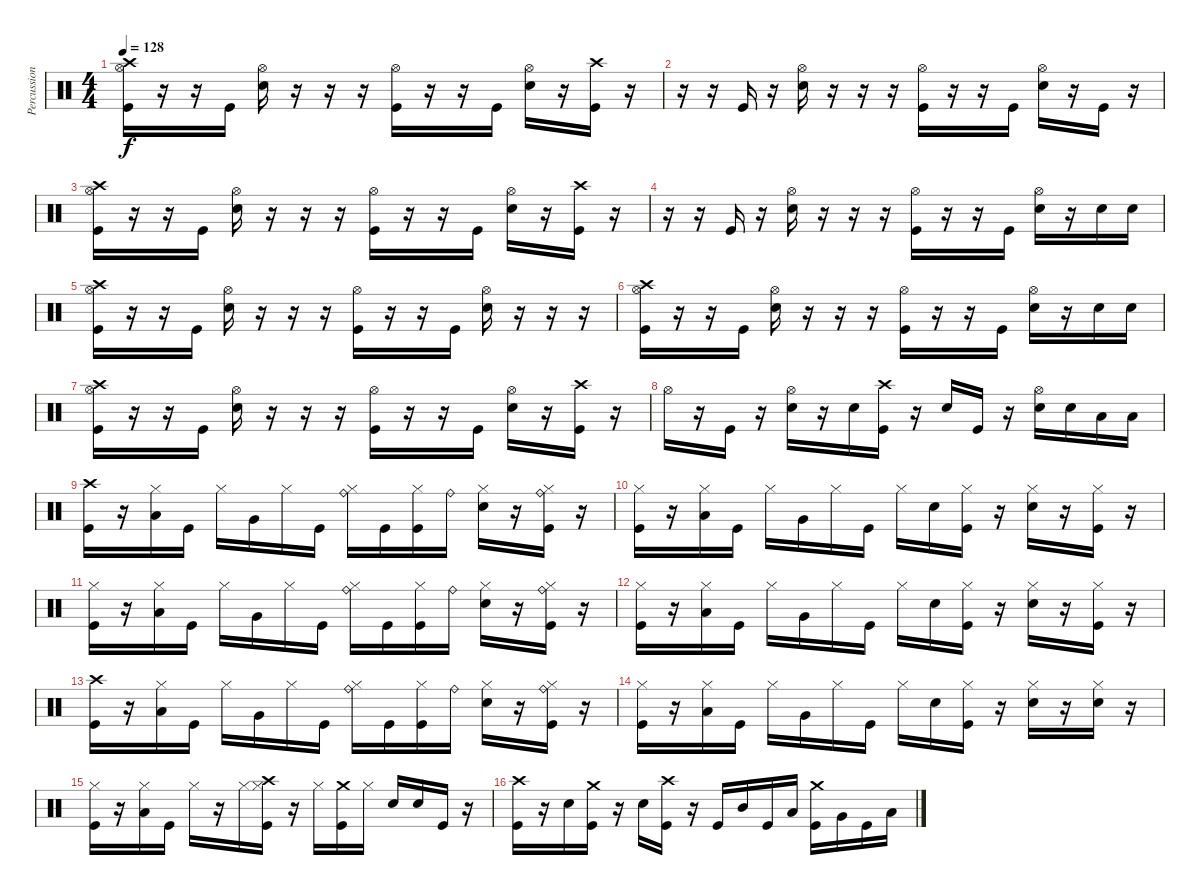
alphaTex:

\track ("Percussion" "Percussion") {instrument percussion}
\staff {score}
\articulation defaults
\ts (4 4)
\tempo 128
\clef neutral
\ks c
("Crash high (hit)" "Hi-Hat (open)" "Kick (hit)").16{dy f} r.16 r.16 "Kick (hit)".16 ("Hi-Hat (open)" "Electric Snare (hit)").16 r.16 r.16 r.16 ("Hi-Hat (open)" "Kick (hit)").16 r.16 r.16 "Kick (hit)".16 ("Hi-Hat (open)" "Electric Snare (hit)").16 r.16 ("Crash high (hit)" "Kick (hit)").16 r.16 |
r.16 r.16 "Kick (hit)".16 r.16 ("Hi-Hat (open)" "Electric Snare (hit)").16 r.16 r.16 r.16 ("Hi-Hat (open)" "Kick (hit)").16 r.16 r.16 "Kick (hit)".16 ("Hi-Hat (open)" "Electric Snare (hit)").16 r.16 "Kick (hit)".16 r.16 |
("Crash high (hit)" "Hi-Hat (open)" "Kick (hit)").16 r.16 r.16 "Kick (hit)".16 ("Hi-Hat (open)" "Electric Snare (hit)").16 r.16 r.16 r.16 ("Hi-Hat (open)" "Kick (hit)").16 r.16 r.16 "Kick (hit)".16 ("Hi-Hat (open)" "Electric Snare (hit)").16 r.16 ("Crash high (hit)" "Kick (hit)").16 r.16 |
r.16 r.16 "Kick (hit)".16 r.16 ("Hi-Hat (open)" "Electric Snare (hit)").16 r.16 r.16 r.16 ("Hi-Hat (open)" "Kick (hit)").16 r.16 r.16 "Kick (hit)".16 ("Hi-Hat (open)" "Electric Snare (hit)").16 r.16 "Electric Snare (hit)".16 "Electric Snare (hit)".16 |
("Crash high (hit)" "Hi-Hat (open)" "Kick (hit)").16 r.16 r.16 "Kick (hit)".16 ("Hi-Hat (open)" "Electric Snare (hit)").16 r.16 r.16 r.16 ("Hi-Hat (open)" "Kick (hit)").16 r.16 r.16 "Kick (hit)".16 ("Hi-Hat (open)" "Electric Snare (hit)").16 r.16 r.16 r.16 |
("Crash high (hit)" "Hi-Hat (open)" "Kick (hit)").16 r.16 r.16 "Kick (hit)".16 ("Hi-Hat (open)" "Electric Snare (hit)").16 r.16 r.16 r.16 ("Hi-Hat (open)" "Kick (hit)").16 r.16 r.16 "Kick (hit)".16 ("Hi-Hat (open)" "Electric Snare (hit)").16 r.16 "Electric Snare (hit)".16 "Electric Snare (hit)".16 |
("Crash high (hit)" "Hi-Hat (open)" "Kick (hit)").16 r.16 r.16 "Kick (hit)".16 ("Hi-Hat (open)" "Electric Snare (hit)").16 r.16 r.16 r.16 ("Hi-Hat (open)" "Kick (hit)").16 r.16 r.16 "Kick (hit)".16 ("Hi-Hat (open)" "Electric Snare (hit)").16 r.16 ("Crash high (hit)" "Kick (hit)").16 r.16 |
"Hi-Hat (open)".16 r.16 "Kick (hit)".16 r.16 ("Hi-Hat (open)" "Electric Snare (hit)").16 r.16 "Electric Snare (hit)".16 ("Crash high (hit)" "Kick (hit)").16 r.16 "Electric Snare (hit)".16 "Kick (hit)".16 r.16 ("Hi-Hat (open)" "Electric Snare (hit)").16 "Electric Snare (hit)".16 "Low Floor Tom (hit)".16 "Low Floor Tom (hit)".16 |
("Crash high (hit)" "Kick (hit)").16 r.16 ("Hi-Hat (closed)" "Low Tom (hit)").16 "Kick (hit)".16 "Hi-Hat (closed)".16 "Very Low Tom (hit)".16 "Hi-Hat (closed)".16 "Kick (hit)".16 ("Ride (bell)" "Hi-Hat (closed)").16 "Kick (hit)".16 ("Hi-Hat (closed)" "Kick (hit)").16 "Ride (bell)".16 ("Hi-Hat (closed)" "Electric Snare (hit)").16 r.16 ("Ride (bell)" "Hi-Hat (closed)" "Kick (hit)").16 r.16 |
("Hi-Hat (closed)" "Kick (hit)").16 r.16 ("Hi-Hat (closed)" "Low Tom (hit)").16 "Kick (hit)".16 "Hi-Hat (closed)".16 "Very Low Tom (hit)".16 "Hi-Hat (closed)".16 "Kick (hit)".16 "Hi-Hat (closed)".16 "Electric Snare (hit)".16 ("Hi-Hat (closed)" "Kick (hit)").16 r.16 ("Hi-Hat (closed)" "Electric Snare (hit)").16 r.16 ("Hi-Hat (closed)" "Kick (hit)").16 r.16 |
("Hi-Hat (closed)" "Kick (hit)").16 r.16 ("Hi-Hat (closed)" "Low Tom (hit)").16 "Kick (hit)".16 "Hi-Hat (closed)".16 "Very Low Tom (hit)".16 "Hi-Hat (closed)".16 "Kick (hit)".16 ("Ride (bell)" "Hi-Hat (closed)").16 "Kick (hit)".16 ("Hi-Hat (closed)" "Kick (hit)").16 "Ride (bell)".16 ("Hi-Hat (closed)" "Electric Snare (hit)").16 r.16 ("Ride (bell)" "Hi-Hat (closed)" "Kick (hit)").16 r.16 |
("Hi-Hat (closed)" "Kick (hit)").16 r.16 ("Hi-Hat (closed)" "Low Tom (hit)").16 "Kick (hit)".16 "Hi-Hat (closed)".16 "Very Low Tom (hit)".16 "Hi-Hat (closed)".16 "Kick (hit)".16 "Hi-Hat (closed)".16 "Electric Snare (hit)".16 ("Hi-Hat (closed)" "Kick (hit)").16 r.16 ("Hi-Hat (closed)" "Electric Snare (hit)").16 r.16 ("Hi-Hat (closed)" "Kick (hit)").16 r.16 |
("Crash high (hit)" "Kick (hit)").16 r.16 ("Hi-Hat (closed)" "Low Tom (hit)").16 "Kick (hit)".16 "Hi-Hat (closed)".16 "Very Low Tom (hit)".16 "Hi-Hat (closed)".16 "Kick (hit)".16 ("Ride (bell)" "Hi-Hat (closed)").16 "Kick (hit)".16 ("Hi-Hat (closed)" "Kick (hit)").16 "Ride (bell)".16 ("Hi-Hat (closed)" "Electric Snare (hit)").16 r.16 ("Ride (bell)" "Hi-Hat (closed)" "Kick (hit)").16 r.16 |
("Hi-Hat (closed)" "Kick (hit)").16 r.16 ("Hi-Hat (closed)" "Low Tom (hit)").16 "Kick (hit)".16 "Hi-Hat (closed)".16 "Very Low Tom (hit)".16 "Hi-Hat (closed)".16 "Kick (hit)".16 "Hi-Hat (closed)".16 "Electric Snare (hit)".16 ("Hi-Hat (closed)" "Kick (hit)").16 r.16 ("Hi-Hat (closed)" "Electric Snare (hit)").16 r.16 ("Hi-Hat (closed)" "Electric Snare (hit)").16 r.16 |
("Hi-Hat (closed)" "Kick (hit)").16 r.16 ("Hi-Hat (closed)" "Low Tom (hit)").16 "Kick (hit)".16 "Hi-Hat (closed)".16 r.16 "Hi-Hat (closed)".16 ("Crash high (hit)" "Hi-Hat (closed)" "Kick (hit)").16 r.16 "Hi-Hat (closed)".16 ("Crash medium (hit)" "Kick (hit)").16 "Hi-Hat (closed)".16 "Electric Snare (hit)".16 "Electric Snare (hit)".16 "Kick (hit)".16 r.16 |
("Crash high (hit)" "Kick (hit)").16 r.16 "Electric Snare (hit)".16 ("Crash medium (hit)" "Kick (hit)").16 r.16 "Electric Snare (hit)".16 ("Crash high (hit)" "Kick (hit)").16 r.16 "Kick (hit)".16 "Mid Tom (hit)".16 "Kick (hit)".16 "Low Tom (hit)".16 ("Crash medium (hit)" "Kick (hit)").16 "Very Low Tom (hit)".16 "Kick (hit)".16 "Low Floor Tom (hit)".16
